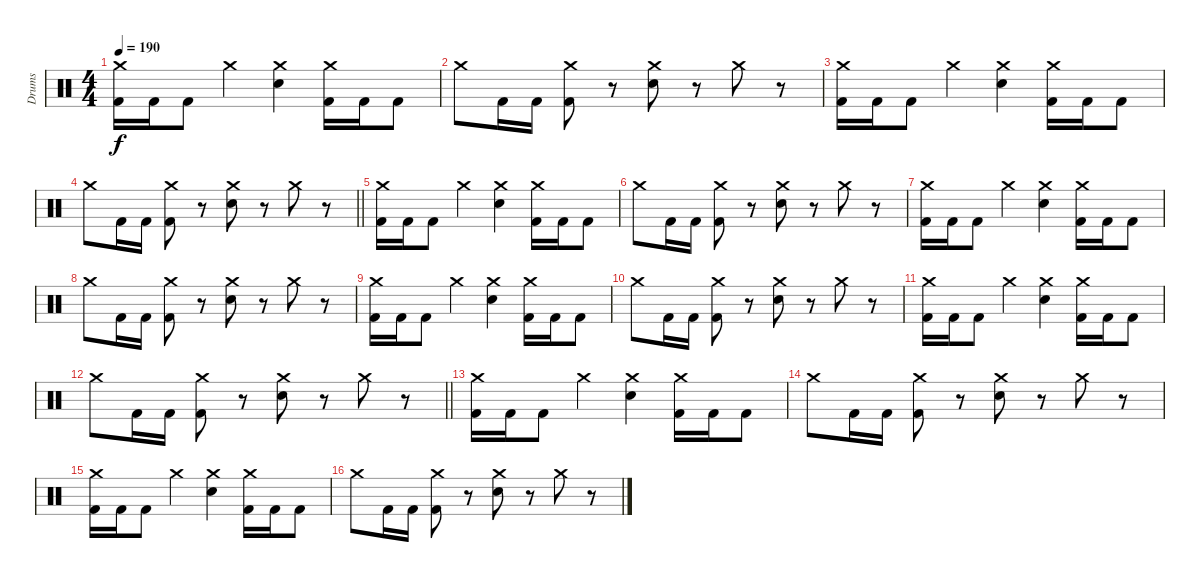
\track ("Drums" "Drums") {instrument percussion}
\staff {score}
\articulation defaults
\ts (4 4)
\tempo 190
\clef neutral
\ks c
("Crash medium (hit)" "Kick (hit) 2").16{dy f} "Kick (hit) 2".16 "Kick (hit) 2".8 "Crash medium (hit)".4 ("Crash medium (hit)" "Electric Snare (hit)").4 ("Crash medium (hit)" "Kick (hit) 2").16 "Kick (hit) 2".16 "Kick (hit) 2".8 |
"Crash medium (hit)".8 "Kick (hit) 2".16 "Kick (hit) 2".16 ("Crash medium (hit)" "Kick (hit) 2").8 r.8 ("Crash medium (hit)" "Electric Snare (hit)").8 r.8 "Crash medium (hit)".8 r.8 |
("Crash medium (hit)" "Kick (hit) 2").16 "Kick (hit) 2".16 "Kick (hit) 2".8 "Crash medium (hit)".4 ("Crash medium (hit)" "Electric Snare (hit)").4 ("Crash medium (hit)" "Kick (hit) 2").16 "Kick (hit) 2".16 "Kick (hit) 2".8 |
\barLineRight lightlight "Crash medium (hit)".8 "Kick (hit) 2".16 "Kick (hit) 2".16
("Crash medium (hit)" "Kick (hit) 2").8 r.8 ("Crash medium (hit)" "Electric Snare (hit)").8 r.8 "Crash medium (hit)".8 r.8 |
("Crash medium (hit)" "Kick (hit) 2").16 "Kick (hit) 2".16 "Kick (hit) 2".8 "Crash medium (hit)".4 ("Crash medium (hit)" "Electric Snare (hit)").4 ("Crash medium (hit)" "Kick (hit) 2").16 "Kick (hit) 2".16 "Kick (hit) 2".8 |
"Crash medium (hit)".8 "Kick (hit) 2".16 "Kick (hit) 2".16 ("Crash medium (hit)" "Kick (hit) 2").8 r.8 ("Crash medium (hit)" "Electric Snare (hit)").8 r.8 "Crash medium (hit)".8 r.8 |
("Crash medium (hit)" "Kick (hit) 2").16 "Kick (hit) 2".16 "Kick (hit) 2".8 "Crash medium (hit)".4 ("Crash medium (hit)" "Electric Snare (hit)").4 ("Crash medium (hit)" "Kick (hit) 2").16 "Kick (hit) 2".16 "Kick (hit) 2".8 |
"Crash medium (hit)".8 "Kick (hit) 2".16 "Kick (hit) 2".16 ("Crash medium (hit)" "Kick (hit) 2").8 r.8 ("Crash medium (hit)" "Electric Snare (hit)").8 r.8 "Crash medium (hit)".8 r.8 |
("Crash medium (hit)" "Kick (hit) 2").16 "Kick (hit) 2".16 "Kick (hit) 2".8 "Crash medium (hit)".4 ("Crash medium (hit)" "Electric Snare (hit)").4 ("Crash medium (hit)" "Kick (hit) 2").16 "Kick (hit) 2".16 "Kick (hit) 2".8 |
"Crash medium (hit)".8 "Kick (hit) 2".16 "Kick (hit) 2".16 ("Crash medium (hit)" "Kick (hit) 2").8 r.8 ("Crash medium (hit)" "Electric Snare (hit)").8 r.8 "Crash medium (hit)".8 r.8 |
("Crash medium (hit)" "Kick (hit) 2").16 "Kick (hit) 2".16 "Kick (hit) 2".8 "Crash medium (hit)".4 ("Crash medium (hit)" "Electric Snare (hit)").4 ("Crash medium (hit)" "Kick (hit) 2").16 "Kick (hit) 2".16 "Kick (hit) 2".8 |
\barLineRight lightlight "Crash medium (hit)".8 "Kick (hit) 2".16 "Kick (hit) 2".16
("Crash medium (hit)" "Kick (hit) 2").8 r.8 ("Crash medium (hit)" "Electric Snare (hit)").8 r.8 "Crash medium (hit)".8 r.8 |
("Crash medium (hit)" "Kick (hit) 2").16 "Kick (hit) 2".16 "Kick (hit) 2".8 "Crash medium (hit)".4 ("Crash medium (hit)" "Electric Snare (hit)").4 ("Crash medium (hit)" "Kick (hit) 2").16 "Kick (hit) 2".16 "Kick (hit) 2".8 |
"Crash medium (hit)".8 "Kick (hit) 2".16 "Kick (hit) 2".16 ("Crash medium (hit)" "Kick (hit) 2").8 r.8 ("Crash medium (hit)" "Electric Snare (hit)").8 r.8 "Crash medium (hit)".8 r.8 |
("Crash medium (hit)" "Kick (hit) 2").16 "Kick (hit) 2".16 "Kick (hit) 2".8 "Crash medium (hit)".4 ("Crash medium (hit)" "Electric Snare (hit)").4 ("Crash medium (hit)" "Kick (hit) 2").16 "Kick (hit) 2".16 "Kick (hit) 2".8 |
"Crash medium (hit)".8 "Kick (hit) 2".16 "Kick (hit) 2".16 ("Crash medium (hit)" "Kick (hit) 2").8 r.8 ("Crash medium (hit)" "Electric Snare (hit)").8 r.8 "Crash medium (hit)".8 r.8
